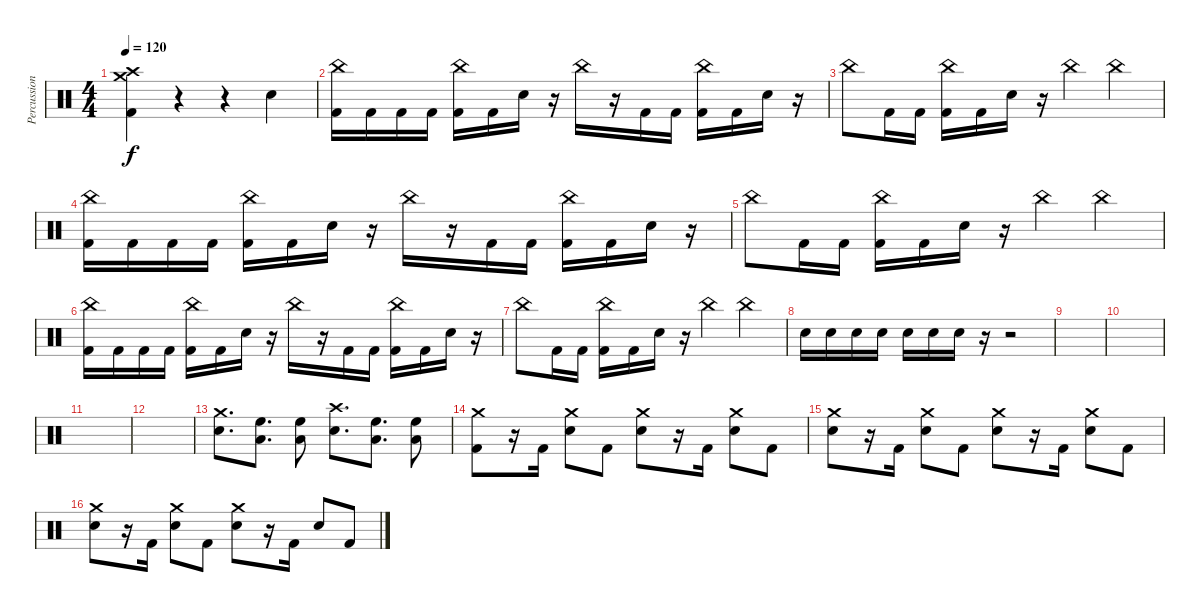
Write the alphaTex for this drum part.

\track ("Percussion" "Percussion") {instrument percussion}
\staff {score}
\articulation defaults
\ts (4 4)
\tempo 120
\clef neutral
\ks c
("Crash medium (hit)" "Crash high (hit)" "Kick (hit) 2").4{dy f} r.4 r.4 "Electric Snare (hit)".4 |
("China (hit)" "Kick (hit) 2").16 "Kick (hit) 2".16 "Kick (hit) 2".16 "Kick (hit) 2".16 ("China (hit)" "Kick (hit) 2").16 "Kick (hit) 2".16 "Electric Snare (hit)".16 r.16 "China (hit)".16 r.16 "Kick (hit) 2".16 "Kick (hit) 2".16 ("China (hit)" "Kick (hit) 2").16 "Kick (hit) 2".16 "Electric Snare (hit)".16 r.16 |
"China (hit)".8 "Kick (hit) 2".16 "Kick (hit) 2".16 ("China (hit)" "Kick (hit) 2").16 "Kick (hit) 2".16 "Electric Snare (hit)".16 r.16 "China (hit)".4 "China (hit)".4 |
("China (hit)" "Kick (hit) 2").16 "Kick (hit) 2".16 "Kick (hit) 2".16 "Kick (hit) 2".16 ("China (hit)" "Kick (hit) 2").16 "Kick (hit) 2".16 "Electric Snare (hit)".16 r.16 "China (hit)".16 r.16 "Kick (hit) 2".16 "Kick (hit) 2".16 ("China (hit)" "Kick (hit) 2").16 "Kick (hit) 2".16 "Electric Snare (hit)".16 r.16 |
"China (hit)".8 "Kick (hit) 2".16 "Kick (hit) 2".16 ("China (hit)" "Kick (hit) 2").16 "Kick (hit) 2".16 "Electric Snare (hit)".16 r.16 "China (hit)".4 "China (hit)".4 |
("China (hit)" "Kick (hit) 2").16 "Kick (hit) 2".16 "Kick (hit) 2".16 "Kick (hit) 2".16 ("China (hit)" "Kick (hit) 2").16 "Kick (hit) 2".16 "Electric Snare (hit)".16 r.16 "China (hit)".16 r.16 "Kick (hit) 2".16 "Kick (hit) 2".16 ("China (hit)" "Kick (hit) 2").16 "Kick (hit) 2".16 "Electric Snare (hit)".16 r.16 |
"China (hit)".8 "Kick (hit) 2".16 "Kick (hit) 2".16 ("China (hit)" "Kick (hit) 2").16 "Kick (hit) 2".16 "Electric Snare (hit)".16 r.16 "China (hit)".4 "China (hit)".4 |
"Electric Snare (hit)".16 "Electric Snare (hit)".16 "Electric Snare (hit)".16 "Electric Snare (hit)".16 "Electric Snare (hit)".16 "Electric Snare (hit)".16 "Electric Snare (hit)".16 r.16 r.2 |
|
|
|
|
("Crash medium (hit)" "Electric Snare (hit)").8{d} ("High Floor Tom (hit)" "Low Floor Tom (hit)").8{d} ("High Floor Tom (hit)" "Low Floor Tom (hit)").8 ("Crash high (hit)" "Electric Snare (hit)").8{d} ("High Floor Tom (hit)" "Low Floor Tom (hit)").8{d} ("High Floor Tom (hit)" "Low Floor Tom (hit)").8 |
("Crash medium (hit)" "Kick (hit) 2").8 r.16 "Kick (hit) 2".16 ("Crash medium (hit)" "Electric Snare (hit)").8 "Kick (hit) 2".8 ("Crash medium (hit)" "Electric Snare (hit)").8 r.16 "Kick (hit) 2".16 ("Crash medium (hit)" "Electric Snare (hit)").8 "Kick (hit) 2".8 |
("Crash medium (hit)" "Electric Snare (hit)").8 r.16 "Kick (hit) 2".16 ("Crash medium (hit)" "Electric Snare (hit)").8 "Kick (hit) 2".8 ("Crash medium (hit)" "Electric Snare (hit)").8 r.16 "Kick (hit) 2".16 ("Crash medium (hit)" "Electric Snare (hit)").8 "Kick (hit) 2".8 |
("Crash medium (hit)" "Electric Snare (hit)").8 r.16 "Kick (hit) 2".16 ("Crash medium (hit)" "Electric Snare (hit)").8 "Kick (hit) 2".8 ("Crash medium (hit)" "Electric Snare (hit)").8 r.16 "Kick (hit) 2".16 "Electric Snare (hit)".8 "Kick (hit) 2".8
